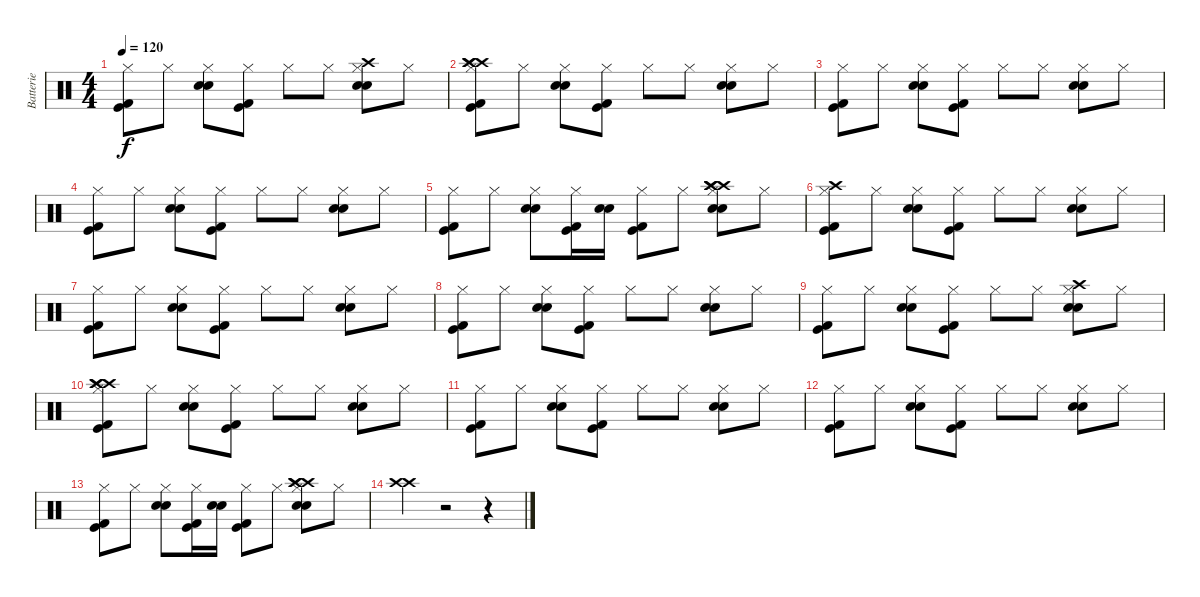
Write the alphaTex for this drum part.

\track ("Batterie" "Batterie") {instrument percussion}
\staff {score}
\articulation defaults
\ts (4 4)
\tempo 120
\clef neutral
\ks c
("Hi-Hat (closed)" "Kick (hit)" "Kick (hit) 2").8{dy f} "Hi-Hat (closed)".8 ("Hi-Hat (closed)" "Electric Snare (hit)" "Electric Snare (hit)").8 ("Hi-Hat (closed)" "Kick (hit)" "Kick (hit) 2").8 "Hi-Hat (closed)".8 "Hi-Hat (closed)".8 ("Hi-Hat (closed)" "Electric Snare (hit)" "Electric Snare (hit)" "Crash high (hit)").8 "Hi-Hat (closed)".8 |
("Crash high (hit)" "Hi-Hat (closed)" "Crash high (hit)" "Kick (hit)" "Kick (hit) 2" "Crash high (hit)").8 "Hi-Hat (closed)".8 ("Hi-Hat (closed)" "Electric Snare (hit)" "Electric Snare (hit)").8 ("Hi-Hat (closed)" "Kick (hit)" "Kick (hit) 2").8 "Hi-Hat (closed)".8 "Hi-Hat (closed)".8 ("Hi-Hat (closed)" "Electric Snare (hit)" "Electric Snare (hit)").8 "Hi-Hat (closed)".8 |
("Hi-Hat (closed)" "Kick (hit)" "Kick (hit) 2").8 "Hi-Hat (closed)".8 ("Hi-Hat (closed)" "Electric Snare (hit)" "Electric Snare (hit)").8 ("Hi-Hat (closed)" "Kick (hit)" "Kick (hit) 2").8 "Hi-Hat (closed)".8 "Hi-Hat (closed)".8 ("Hi-Hat (closed)" "Electric Snare (hit)" "Electric Snare (hit)").8 "Hi-Hat (closed)".8 |
("Hi-Hat (closed)" "Kick (hit)" "Kick (hit) 2").8 "Hi-Hat (closed)".8 ("Hi-Hat (closed)" "Electric Snare (hit)" "Electric Snare (hit)").8 ("Hi-Hat (closed)" "Kick (hit)" "Kick (hit) 2").8 "Hi-Hat (closed)".8 "Hi-Hat (closed)".8 ("Hi-Hat (closed)" "Electric Snare (hit)" "Electric Snare (hit)").8 "Hi-Hat (closed)".8 |
("Hi-Hat (closed)" "Kick (hit)" "Kick (hit) 2").8 "Hi-Hat (closed)".8 ("Hi-Hat (closed)" "Electric Snare (hit)" "Electric Snare (hit)").8 ("Hi-Hat (closed)" "Kick (hit)" "Kick (hit) 2").16 ("Electric Snare (hit)" "Electric Snare (hit)").16 ("Hi-Hat (closed)" "Kick (hit)" "Kick (hit) 2").8 "Hi-Hat (closed)".8 ("Crash high (hit)" "Hi-Hat (closed)" "Electric Snare (hit)" "Electric Snare (hit)" "Crash high (hit)" "Crash high (hit)").8 "Hi-Hat (closed)".8 |
("Crash high (hit)" "Hi-Hat (closed)" "Kick (hit)" "Kick (hit) 2").8 "Hi-Hat (closed)".8 ("Hi-Hat (closed)" "Electric Snare (hit)" "Electric Snare (hit)").8 ("Hi-Hat (closed)" "Kick (hit)" "Kick (hit) 2").8 "Hi-Hat (closed)".8 "Hi-Hat (closed)".8 ("Hi-Hat (closed)" "Electric Snare (hit)" "Electric Snare (hit)").8 "Hi-Hat (closed)".8 |
("Hi-Hat (closed)" "Kick (hit)" "Kick (hit) 2").8 "Hi-Hat (closed)".8 ("Hi-Hat (closed)" "Electric Snare (hit)" "Electric Snare (hit)").8 ("Hi-Hat (closed)" "Kick (hit)" "Kick (hit) 2").8 "Hi-Hat (closed)".8 "Hi-Hat (closed)".8 ("Hi-Hat (closed)" "Electric Snare (hit)" "Electric Snare (hit)").8 "Hi-Hat (closed)".8 |
("Hi-Hat (closed)" "Kick (hit)" "Kick (hit) 2").8 "Hi-Hat (closed)".8 ("Hi-Hat (closed)" "Electric Snare (hit)" "Electric Snare (hit)").8 ("Hi-Hat (closed)" "Kick (hit)" "Kick (hit) 2").8 "Hi-Hat (closed)".8 "Hi-Hat (closed)".8 ("Hi-Hat (closed)" "Electric Snare (hit)" "Electric Snare (hit)").8 "Hi-Hat (closed)".8 |
("Hi-Hat (closed)" "Kick (hit)" "Kick (hit) 2").8 "Hi-Hat (closed)".8 ("Hi-Hat (closed)" "Electric Snare (hit)" "Electric Snare (hit)").8 ("Hi-Hat (closed)" "Kick (hit)" "Kick (hit) 2").8 "Hi-Hat (closed)".8 "Hi-Hat (closed)".8 ("Hi-Hat (closed)" "Electric Snare (hit)" "Electric Snare (hit)" "Crash high (hit)").8 "Hi-Hat (closed)".8 |
("Crash high (hit)" "Hi-Hat (closed)" "Crash high (hit)" "Kick (hit)" "Kick (hit) 2" "Crash high (hit)").8 "Hi-Hat (closed)".8 ("Hi-Hat (closed)" "Electric Snare (hit)" "Electric Snare (hit)").8 ("Hi-Hat (closed)" "Kick (hit)" "Kick (hit) 2").8 "Hi-Hat (closed)".8 "Hi-Hat (closed)".8 ("Hi-Hat (closed)" "Electric Snare (hit)" "Electric Snare (hit)").8 "Hi-Hat (closed)".8 |
("Hi-Hat (closed)" "Kick (hit)" "Kick (hit) 2").8 "Hi-Hat (closed)".8 ("Hi-Hat (closed)" "Electric Snare (hit)" "Electric Snare (hit)").8 ("Hi-Hat (closed)" "Kick (hit)" "Kick (hit) 2").8 "Hi-Hat (closed)".8 "Hi-Hat (closed)".8 ("Hi-Hat (closed)" "Electric Snare (hit)" "Electric Snare (hit)").8 "Hi-Hat (closed)".8 |
("Hi-Hat (closed)" "Kick (hit)" "Kick (hit) 2").8 "Hi-Hat (closed)".8 ("Hi-Hat (closed)" "Electric Snare (hit)" "Electric Snare (hit)").8 ("Hi-Hat (closed)" "Kick (hit)" "Kick (hit) 2").8 "Hi-Hat (closed)".8 "Hi-Hat (closed)".8 ("Hi-Hat (closed)" "Electric Snare (hit)" "Electric Snare (hit)").8 "Hi-Hat (closed)".8 |
("Hi-Hat (closed)" "Kick (hit)" "Kick (hit) 2").8 "Hi-Hat (closed)".8 ("Hi-Hat (closed)" "Electric Snare (hit)" "Electric Snare (hit)").8 ("Hi-Hat (closed)" "Kick (hit)" "Kick (hit) 2").16 ("Electric Snare (hit)" "Electric Snare (hit)").16 ("Hi-Hat (closed)" "Kick (hit)" "Kick (hit) 2").8 "Hi-Hat (closed)".8 ("Crash high (hit)" "Hi-Hat (closed)" "Electric Snare (hit)" "Electric Snare (hit)" "Crash high (hit)" "Crash high (hit)").8 "Hi-Hat (closed)".8 |
("Crash high (hit)" "Crash high (hit)").4 r.2 r.4
